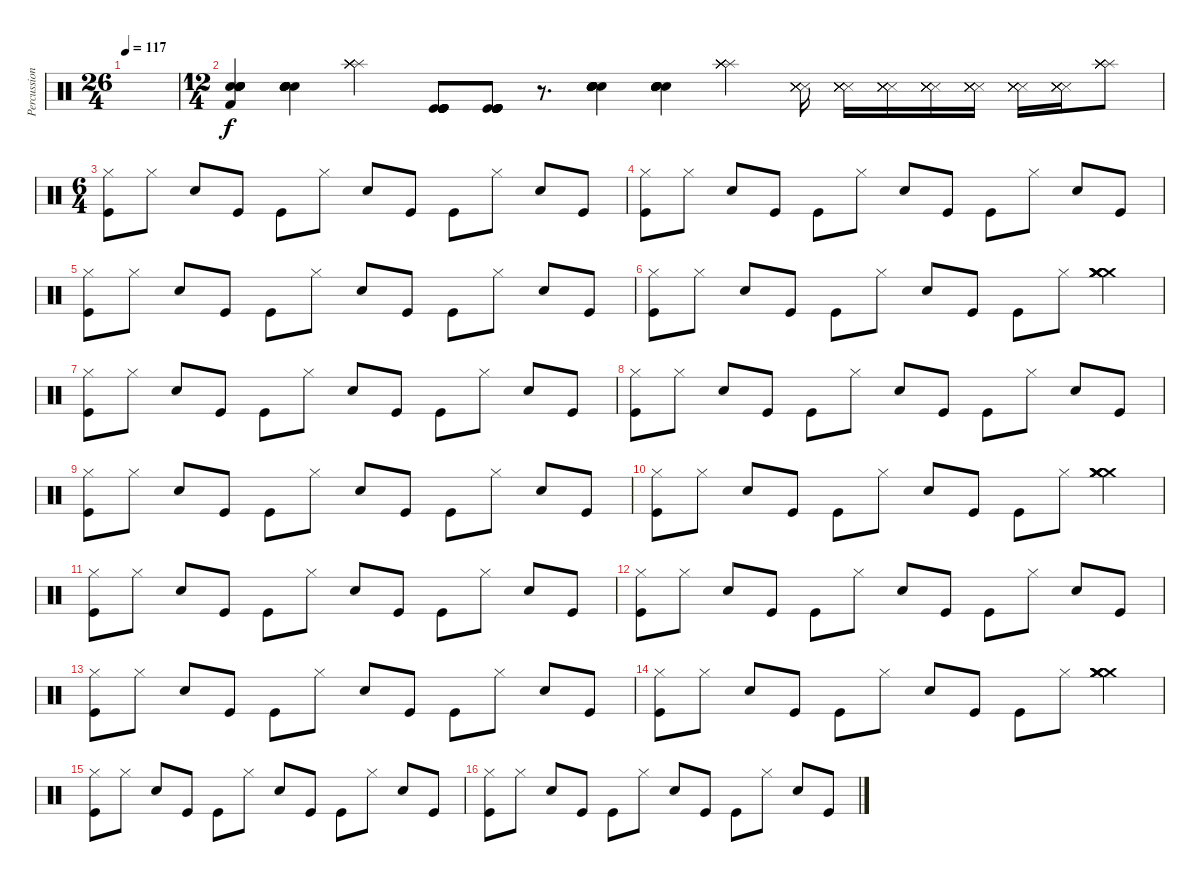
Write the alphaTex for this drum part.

\track ("Percussions" "Percussion") {instrument percussion}
\staff {score}
\articulation defaults
\ts (26 4)
\tempo 117
\clef neutral
\ks c
|
\ts (12 4)
("Kick (hit) 2" "Electric Snare (hit)" "Electric Snare (hit)" "Electric Snare (hit)" "Electric Snare (hit)" "Electric Snare (hit)").4 ("Electric Snare (hit)" "Electric Snare (hit)" "Electric Snare (hit)" "Electric Snare (hit)" "Electric Snare (hit)" "Electric Snare (hit)").4 ("Splash (hit)" "Splash (hit)" "Splash (hit)" "Splash (hit)" "Splash (hit)" "Splash (hit)").2 ("Kick (hit)" "Kick (hit)" "Kick (hit)" "Kick (hit)" "Kick (hit)" "Kick (hit)").8 ("Kick (hit)" "Kick (hit)" "Kick (hit)" "Kick (hit)" "Kick (hit)" "Kick (hit)").8 r.8{d} ("Electric Snare (hit)" "Electric Snare (hit)" "Electric Snare (hit)" "Electric Snare (hit)" "Electric Snare (hit)" "Electric Snare (hit)").4 ("Electric Snare (hit)" "Electric Snare (hit)" "Electric Snare (hit)" "Electric Snare (hit)" "Electric Snare (hit)" "Electric Snare (hit)").4 ("Splash (hit)" "Splash (hit)" "Splash (hit)" "Splash (hit)" "Splash (hit)" "Splash (hit)").2 ("Snare (side stick) 3" "Snare (side stick) 3" "Snare (side stick) 3" "Snare (side stick) 3" "Snare (side stick) 3" "Snare (side stick) 3").16 ("Snare (side stick) 3" "Snare (side stick) 3" "Snare (side stick) 3" "Snare (side stick) 3" "Snare (side stick) 3" "Snare (side stick) 3").16 ("Snare (side stick) 3" "Snare (side stick) 3" "Snare (side stick) 3" "Snare (side stick) 3" "Snare (side stick) 3" "Snare (side stick) 3").16 ("Snare (side stick) 3" "Snare (side stick) 3" "Snare (side stick) 3" "Snare (side stick) 3" "Snare (side stick) 3" "Snare (side stick) 3").16 ("Snare (side stick) 3" "Snare (side stick) 3" "Snare (side stick) 3" "Snare (side stick) 3" "Snare (side stick) 3" "Snare (side stick) 3").16 ("Snare (side stick) 3" "Snare (side stick) 3" "Snare (side stick) 3" "Snare (side stick) 3" "Snare (side stick) 3" "Snare (side stick) 3").16 ("Snare (side stick) 3" "Snare (side stick) 3" "Snare (side stick) 3" "Snare (side stick) 3" "Snare (side stick) 3" "Snare (side stick) 3").16 ("Splash (hit)" "Splash (hit)" "Splash (hit)" "Splash (hit)" "Splash (hit)" "Splash (hit)").8 |
\ts (6 4)
("Kick (hit)" "Hi-Hat (closed)").8 "Hi-Hat (closed)".8 "Snare (hit) 2".8 "Kick (hit)".8 "Kick (hit)".8 "Hi-Hat (closed)".8 "Snare (hit) 2".8 "Kick (hit)".8 "Kick (hit)".8 "Hi-Hat (closed)".8 "Snare (hit) 2".8 "Kick (hit)".8 |
("Kick (hit)" "Hi-Hat (closed)").8 "Hi-Hat (closed)".8 "Snare (hit) 2".8 "Kick (hit)".8 "Kick (hit)".8 "Hi-Hat (closed)".8 "Snare (hit) 2".8 "Kick (hit)".8 "Kick (hit)".8 "Hi-Hat (closed)".8 "Snare (hit) 2".8 "Kick (hit)".8 |
("Kick (hit)" "Hi-Hat (closed)").8 "Hi-Hat (closed)".8 "Snare (hit) 2".8 "Kick (hit)".8 "Kick (hit)".8 "Hi-Hat (closed)".8 "Snare (hit) 2".8 "Kick (hit)".8 "Kick (hit)".8 "Hi-Hat (closed)".8 "Snare (hit) 2".8 "Kick (hit)".8 |
("Kick (hit)" "Hi-Hat (closed)").8 "Hi-Hat (closed)".8 "Snare (hit) 2".8 "Kick (hit)".8 "Kick (hit)".8 "Hi-Hat (closed)".8 "Snare (hit) 2".8 "Kick (hit)".8 "Kick (hit)".8 "Hi-Hat (closed)".8 ("Crash medium (hit)" "Crash medium (hit)" "Crash medium (hit)" "Crash medium (hit)" "Crash medium (hit)" "Crash medium (hit)").4 |
("Kick (hit)" "Hi-Hat (closed)").8 "Hi-Hat (closed)".8 "Snare (hit) 2".8 "Kick (hit)".8 "Kick (hit)".8 "Hi-Hat (closed)".8 "Snare (hit) 2".8 "Kick (hit)".8 "Kick (hit)".8 "Hi-Hat (closed)".8 "Snare (hit) 2".8 "Kick (hit)".8 |
("Kick (hit)" "Hi-Hat (closed)").8 "Hi-Hat (closed)".8 "Snare (hit) 2".8 "Kick (hit)".8 "Kick (hit)".8 "Hi-Hat (closed)".8 "Snare (hit) 2".8 "Kick (hit)".8 "Kick (hit)".8 "Hi-Hat (closed)".8 "Snare (hit) 2".8 "Kick (hit)".8 |
("Kick (hit)" "Hi-Hat (closed)").8 "Hi-Hat (closed)".8 "Snare (hit) 2".8 "Kick (hit)".8 "Kick (hit)".8 "Hi-Hat (closed)".8 "Snare (hit) 2".8 "Kick (hit)".8 "Kick (hit)".8 "Hi-Hat (closed)".8 "Snare (hit) 2".8 "Kick (hit)".8 |
("Kick (hit)" "Hi-Hat (closed)").8 "Hi-Hat (closed)".8 "Snare (hit) 2".8 "Kick (hit)".8 "Kick (hit)".8 "Hi-Hat (closed)".8 "Snare (hit) 2".8 "Kick (hit)".8 "Kick (hit)".8 "Hi-Hat (closed)".8 ("Crash medium (hit)" "Crash medium (hit)" "Crash medium (hit)" "Crash medium (hit)" "Crash medium (hit)" "Crash medium (hit)").4 |
("Kick (hit)" "Hi-Hat (closed)").8 "Hi-Hat (closed)".8 "Snare (hit) 2".8 "Kick (hit)".8 "Kick (hit)".8 "Hi-Hat (closed)".8 "Snare (hit) 2".8 "Kick (hit)".8 "Kick (hit)".8 "Hi-Hat (closed)".8 "Snare (hit) 2".8 "Kick (hit)".8 |
("Kick (hit)" "Hi-Hat (closed)").8 "Hi-Hat (closed)".8 "Snare (hit) 2".8 "Kick (hit)".8 "Kick (hit)".8 "Hi-Hat (closed)".8 "Snare (hit) 2".8 "Kick (hit)".8 "Kick (hit)".8 "Hi-Hat (closed)".8 "Snare (hit) 2".8 "Kick (hit)".8 |
("Kick (hit)" "Hi-Hat (closed)").8 "Hi-Hat (closed)".8 "Snare (hit) 2".8 "Kick (hit)".8 "Kick (hit)".8 "Hi-Hat (closed)".8 "Snare (hit) 2".8 "Kick (hit)".8 "Kick (hit)".8 "Hi-Hat (closed)".8 "Snare (hit) 2".8 "Kick (hit)".8 |
("Kick (hit)" "Hi-Hat (closed)").8 "Hi-Hat (closed)".8 "Snare (hit) 2".8 "Kick (hit)".8 "Kick (hit)".8 "Hi-Hat (closed)".8 "Snare (hit) 2".8 "Kick (hit)".8 "Kick (hit)".8 "Hi-Hat (closed)".8 ("Crash medium (hit)" "Crash medium (hit)" "Crash medium (hit)" "Crash medium (hit)" "Crash medium (hit)" "Crash medium (hit)").4 |
("Kick (hit)" "Hi-Hat (closed)").8 "Hi-Hat (closed)".8 "Snare (hit) 2".8 "Kick (hit)".8 "Kick (hit)".8 "Hi-Hat (closed)".8 "Snare (hit) 2".8 "Kick (hit)".8 "Kick (hit)".8 "Hi-Hat (closed)".8 "Snare (hit) 2".8 "Kick (hit)".8 |
("Kick (hit)" "Hi-Hat (closed)").8 "Hi-Hat (closed)".8 "Snare (hit) 2".8 "Kick (hit)".8 "Kick (hit)".8 "Hi-Hat (closed)".8 "Snare (hit) 2".8 "Kick (hit)".8 "Kick (hit)".8 "Hi-Hat (closed)".8 "Snare (hit) 2".8 "Kick (hit)".8
